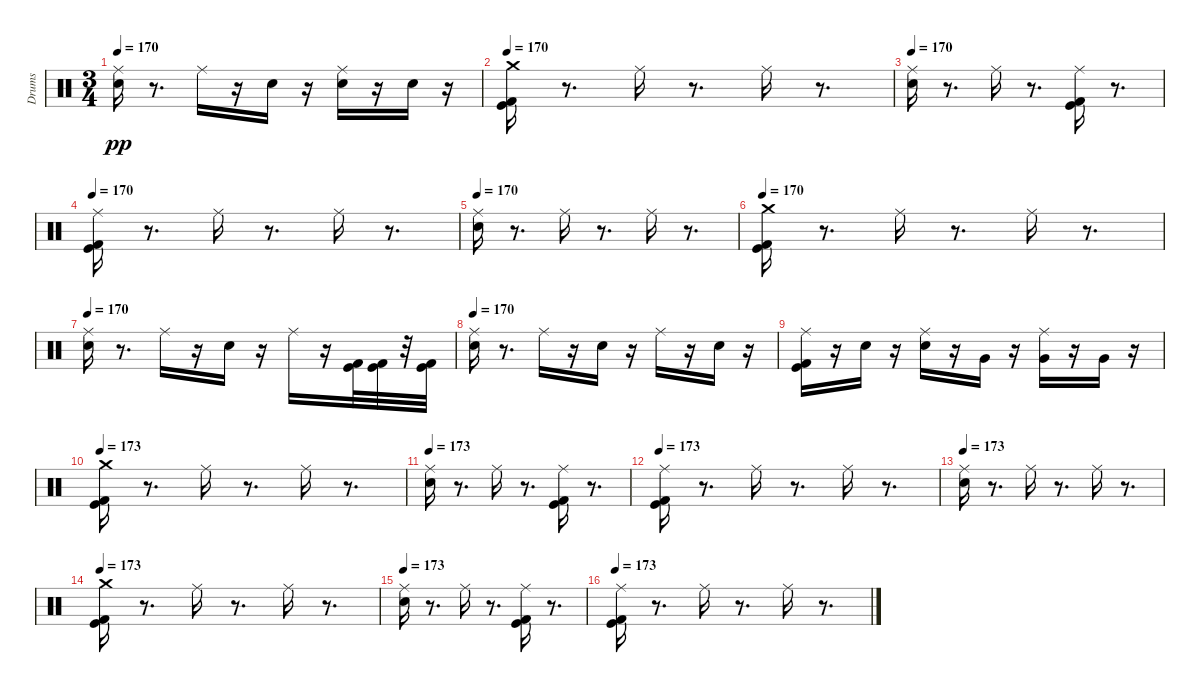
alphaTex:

\track ("Drums" "Drums") {instrument percussion}
\staff {score}
\articulation defaults
\ts (3 4)
\tempo 170
\clef neutral
\ks c
("Ride (middle)" "Snare (hit) 2").16{dy pp} r.8{d} "Ride (middle)".16 r.16 "Snare (hit) 2".16 r.16 ("Snare (hit) 2" "Ride (middle)").16 r.16 "Snare (hit) 2".16 r.16 |
\tempo 170
("Crash medium (hit)" "Kick (hit) 2" "Kick (hit)").16 r.8{d} "Ride (middle)".16 r.8{d} "Ride (middle)".16 r.8{d} |
\tempo 170
("Ride (middle)" "Snare (hit) 2").16 r.8{d} "Ride (middle)".16 r.8{d} ("Ride (middle)" "Kick (hit) 2" "Kick (hit)").16 r.8{d} |
\tempo 170
("Ride (middle)" "Kick (hit) 2" "Kick (hit)").16 r.8{d} "Ride (middle)".16 r.8{d} "Ride (middle)".16 r.8{d} |
\tempo 170
("Ride (middle)" "Snare (hit) 2").16 r.8{d} "Ride (middle)".16 r.8{d} "Ride (middle)".16 r.8{d} |
\tempo 170
("Crash medium (hit)" "Kick (hit) 2" "Kick (hit)").16 r.8{d} "Ride (middle)".16 r.8{d} "Ride (middle)".16 r.8{d} |
\tempo 170
("Ride (middle)" "Snare (hit) 2").16 r.8{d} "Ride (middle)".16 r.16 "Snare (hit) 2".16 r.16 "Ride (middle)".16 r.16 ("Kick (hit) 2" "Kick (hit)").32 ("Kick (hit) 2" "Kick (hit)").32 r.32 ("Kick (hit) 2" "Kick (hit)").32 |
\tempo 170
("Snare (hit) 2" "Ride (middle)").16 r.8{d} "Ride (middle)".16 r.16 "Snare (hit) 2".16 r.16 "Ride (middle)".16 r.16 "Snare (hit) 2".16 r.16 |
("Kick (hit) 2" "Kick (hit)" "Ride (middle)").16 r.16 "Snare (hit) 2".16 r.16 ("Snare (hit) 2" "Ride (middle)").16 r.16 "Very Low Tom (hit)".16 r.16 ("Very Low Tom (hit)" "Ride (middle)").16 r.16 "Very Low Tom (hit)".16 r.16 |
\tempo 173
("Crash medium (hit)" "Kick (hit) 2" "Kick (hit)").16 r.8{d} "Ride (middle)".16 r.8{d} "Ride (middle)".16 r.8{d} |
\tempo 173
("Ride (middle)" "Snare (hit) 2").16 r.8{d} "Ride (middle)".16 r.8{d} ("Ride (middle)" "Kick (hit) 2" "Kick (hit)").16 r.8{d} |
\tempo 173
("Ride (middle)" "Kick (hit) 2" "Kick (hit)").16 r.8{d} "Ride (middle)".16 r.8{d} "Ride (middle)".16 r.8{d} |
\tempo 173
("Ride (middle)" "Snare (hit) 2").16 r.8{d} "Ride (middle)".16 r.8{d} "Ride (middle)".16 r.8{d} |
\tempo 173
("Crash medium (hit)" "Kick (hit) 2" "Kick (hit)").16 r.8{d} "Ride (middle)".16 r.8{d} "Ride (middle)".16 r.8{d} |
\tempo 173
("Ride (middle)" "Snare (hit) 2").16 r.8{d} "Ride (middle)".16 r.8{d} ("Ride (middle)" "Kick (hit) 2" "Kick (hit)").16 r.8{d} |
\tempo 173
("Ride (middle)" "Kick (hit) 2" "Kick (hit)").16 r.8{d} "Ride (middle)".16 r.8{d} "Ride (middle)".16 r.8{d}
